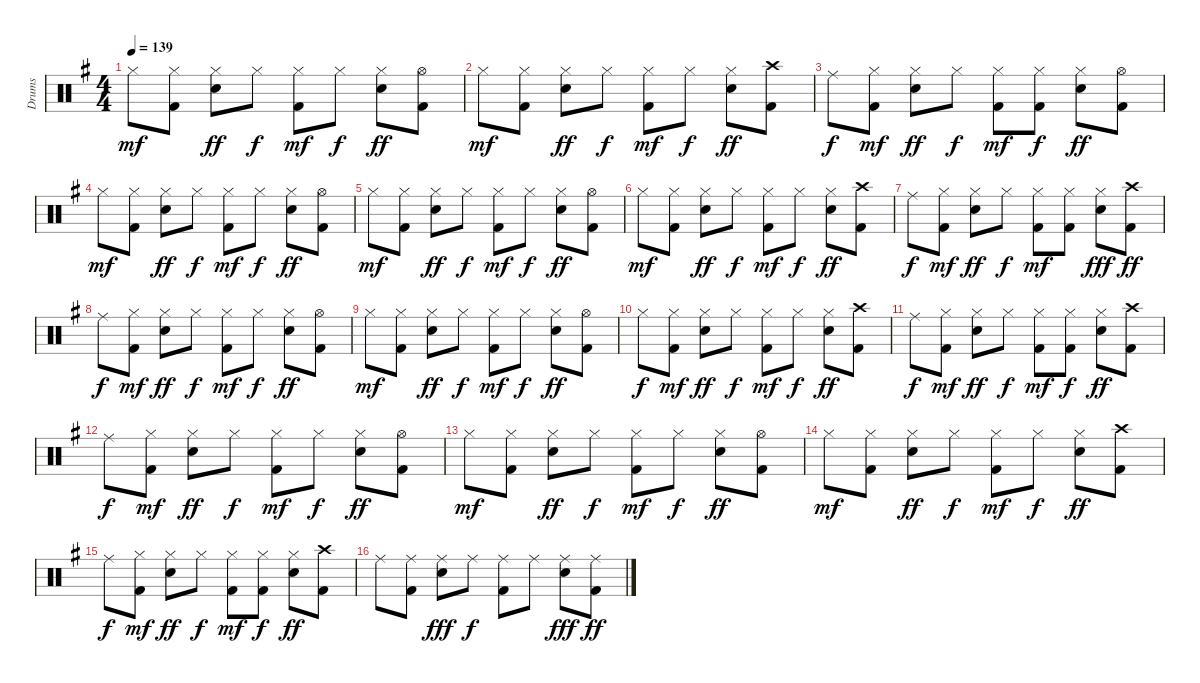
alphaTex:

\track ("Drums" "Drums") {instrument percussion}
\staff {score}
\articulation defaults
\ts (4 4)
\tempo 139
\clef neutral
\ks g "Hi-Hat (closed)".8{dy mf}
("Hi-Hat (closed)" "Kick (hit) 2").8 ("Hi-Hat (closed)" "Snare (hit) 2").8{dy ff} "Hi-Hat (closed)".8{dy f} ("Hi-Hat (closed)" "Kick (hit) 2").8{dy mf} "Hi-Hat (closed)".8{dy f} ("Hi-Hat (closed)" "Snare (hit) 2").8{dy ff} ("Hi-Hat (open)" "Kick (hit) 2").8 |
"Hi-Hat (closed)".8{dy mf} ("Hi-Hat (closed)" "Kick (hit) 2").8 ("Hi-Hat (closed)" "Snare (hit) 2").8{dy ff} "Hi-Hat (closed)".8{dy f} ("Hi-Hat (closed)" "Kick (hit) 2").8{dy mf} "Hi-Hat (closed)".8{dy f} ("Hi-Hat (closed)" "Snare (hit) 2").8{dy ff} ("Crash high (hit)" "Kick (hit) 2").8 |
"Ride (middle)".8{dy f} ("Hi-Hat (closed)" "Kick (hit) 2").8{dy mf} ("Hi-Hat (closed)" "Snare (hit) 2").8{dy ff} "Hi-Hat (closed)".8{dy f} ("Hi-Hat (closed)" "Kick (hit) 2").8{dy mf} ("Hi-Hat (closed)" "Kick (hit) 2").8{dy f} ("Hi-Hat (closed)" "Snare (hit) 2").8{dy ff} ("Hi-Hat (open)" "Kick (hit) 2").8 |
"Hi-Hat (closed)".8{dy mf} ("Hi-Hat (closed)" "Kick (hit) 2").8 ("Hi-Hat (closed)" "Snare (hit) 2").8{dy ff} "Hi-Hat (closed)".8{dy f} ("Hi-Hat (closed)" "Kick (hit) 2").8{dy mf} "Hi-Hat (closed)".8{dy f} ("Hi-Hat (closed)" "Snare (hit) 2").8{dy ff} ("Hi-Hat (open)" "Kick (hit) 2").8 |
"Hi-Hat (closed)".8{dy mf} ("Hi-Hat (closed)" "Kick (hit) 2").8 ("Hi-Hat (closed)" "Snare (hit) 2").8{dy ff} "Hi-Hat (closed)".8{dy f} ("Hi-Hat (closed)" "Kick (hit) 2").8{dy mf} "Hi-Hat (closed)".8{dy f} ("Hi-Hat (closed)" "Snare (hit) 2").8{dy ff} ("Hi-Hat (open)" "Kick (hit) 2").8 |
"Hi-Hat (closed)".8{dy mf} ("Hi-Hat (closed)" "Kick (hit) 2").8 ("Hi-Hat (closed)" "Snare (hit) 2").8{dy ff} "Hi-Hat (closed)".8{dy f} ("Hi-Hat (closed)" "Kick (hit) 2").8{dy mf} "Hi-Hat (closed)".8{dy f} ("Hi-Hat (closed)" "Snare (hit) 2").8{dy ff} ("Crash high (hit)" "Kick (hit) 2").8 |
"Ride (middle)".8{dy f} ("Hi-Hat (closed)" "Kick (hit) 2").8{dy mf} ("Hi-Hat (closed)" "Snare (hit) 2").8{dy ff} "Hi-Hat (closed)".8{dy f} ("Hi-Hat (closed)" "Kick (hit) 2").8{dy mf} ("Hi-Hat (closed)" "Kick (hit) 2").8 ("Hi-Hat (closed)" "Snare (hit) 2").8{dy fff} ("Crash high (hit)" "Kick (hit) 2").8{dy ff} |
"Ride (middle)".8{dy f} ("Hi-Hat (closed)" "Kick (hit) 2").8{dy mf} ("Hi-Hat (closed)" "Snare (hit) 2").8{dy ff} "Hi-Hat (closed)".8{dy f} ("Hi-Hat (closed)" "Kick (hit) 2").8{dy mf} "Hi-Hat (closed)".8{dy f} ("Hi-Hat (closed)" "Snare (hit) 2").8{dy ff} ("Hi-Hat (open)" "Kick (hit) 2").8 |
"Hi-Hat (closed)".8{dy mf} ("Hi-Hat (closed)" "Kick (hit) 2").8 ("Hi-Hat (closed)" "Snare (hit) 2").8{dy ff} "Hi-Hat (closed)".8{dy f} ("Hi-Hat (closed)" "Kick (hit) 2").8{dy mf} "Hi-Hat (closed)".8{dy f} ("Hi-Hat (closed)" "Snare (hit) 2").8{dy ff} ("Hi-Hat (open)" "Kick (hit) 2").8 |
"Hi-Hat (closed)".8{dy f} ("Hi-Hat (closed)" "Kick (hit) 2").8{dy mf} ("Hi-Hat (closed)" "Snare (hit) 2").8{dy ff} "Hi-Hat (closed)".8{dy f} ("Hi-Hat (closed)" "Kick (hit) 2").8{dy mf} "Hi-Hat (closed)".8{dy f} ("Hi-Hat (closed)" "Snare (hit) 2").8{dy ff} ("Crash high (hit)" "Kick (hit) 2").8 |
"Ride (middle)".8{dy f} ("Hi-Hat (closed)" "Kick (hit) 2").8{dy mf} ("Hi-Hat (closed)" "Snare (hit) 2").8{dy ff} "Hi-Hat (closed)".8{dy f} ("Hi-Hat (closed)" "Kick (hit) 2").8{dy mf} ("Hi-Hat (closed)" "Kick (hit) 2").8{dy f} ("Hi-Hat (closed)" "Snare (hit) 2").8{dy ff} ("Crash high (hit)" "Kick (hit) 2").8 |
"Ride (middle)".8{dy f} ("Hi-Hat (closed)" "Kick (hit) 2").8{dy mf} ("Hi-Hat (closed)" "Snare (hit) 2").8{dy ff} "Hi-Hat (closed)".8{dy f} ("Hi-Hat (closed)" "Kick (hit) 2").8{dy mf} "Hi-Hat (closed)".8{dy f} ("Hi-Hat (closed)" "Snare (hit) 2").8{dy ff} ("Hi-Hat (open)" "Kick (hit) 2").8 |
"Hi-Hat (closed)".8{dy mf} ("Hi-Hat (closed)" "Kick (hit) 2").8 ("Hi-Hat (closed)" "Snare (hit) 2").8{dy ff} "Hi-Hat (closed)".8{dy f} ("Hi-Hat (closed)" "Kick (hit) 2").8{dy mf} "Hi-Hat (closed)".8{dy f} ("Hi-Hat (closed)" "Snare (hit) 2").8{dy ff} ("Hi-Hat (open)" "Kick (hit) 2").8 |
"Hi-Hat (closed)".8{dy mf} ("Hi-Hat (closed)" "Kick (hit) 2").8 ("Hi-Hat (closed)" "Snare (hit) 2").8{dy ff} "Hi-Hat (closed)".8{dy f} ("Hi-Hat (closed)" "Kick (hit) 2").8{dy mf} "Hi-Hat (closed)".8{dy f} ("Hi-Hat (closed)" "Snare (hit) 2").8{dy ff} ("Crash high (hit)" "Kick (hit) 2").8 |
"Ride (middle)".8{dy f} ("Hi-Hat (closed)" "Kick (hit) 2").8{dy mf} ("Hi-Hat (closed)" "Snare (hit) 2").8{dy ff} "Hi-Hat (closed)".8{dy f} ("Hi-Hat (closed)" "Kick (hit) 2").8{dy mf} ("Hi-Hat (closed)" "Kick (hit) 2").8{dy f} ("Hi-Hat (closed)" "Snare (hit) 2").8{dy ff} ("Crash high (hit)" "Kick (hit) 2").8 |
"Ride (middle)".8 ("Ride (middle)" "Kick (hit) 2").8 ("Ride (middle)" "Snare (hit) 2").8{dy fff} "Ride (middle)".8{dy f} ("Ride (middle)" "Kick (hit) 2").8 "Ride (middle)".8 ("Ride (middle)" "Snare (hit) 2").8{dy fff} ("Ride (middle)" "Kick (hit) 2").8{dy ff}
